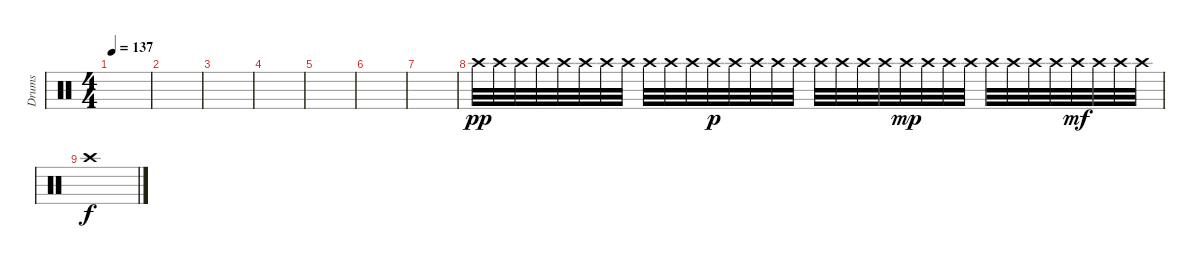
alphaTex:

\track ("Drums" "Drums") {instrument percussion}
\staff {score}
\articulation defaults
\ts (4 4)
\tempo 137
\clef neutral
\ks c
|
|
|
|
|
|
|
"Crash high (hit)".32{dy pp} "Crash high (hit)".32 "Crash high (hit)".32 "Crash high (hit)".32 "Crash high (hit)".32 "Crash high (hit)".32 "Crash high (hit)".32 "Crash high (hit)".32 "Crash high (hit)".32 "Crash high (hit)".32 "Crash high (hit)".32 "Crash high (hit)".32{dy p} "Crash high (hit)".32 "Crash high (hit)".32 "Crash high (hit)".32 "Crash high (hit)".32 "Crash high (hit)".32 "Crash high (hit)".32 "Crash high (hit)".32 "Crash high (hit)".32 "Crash high (hit)".32{dy mp} "Crash high (hit)".32 "Crash high (hit)".32 "Crash high (hit)".32 "Crash high (hit)".32 "Crash high (hit)".32 "Crash high (hit)".32 "Crash high (hit)".32 "Crash high (hit)".32{dy mf} "Crash high (hit)".32 "Crash high (hit)".32 "Crash high (hit)".32 |
"Crash high (hit)".1{dy f}
